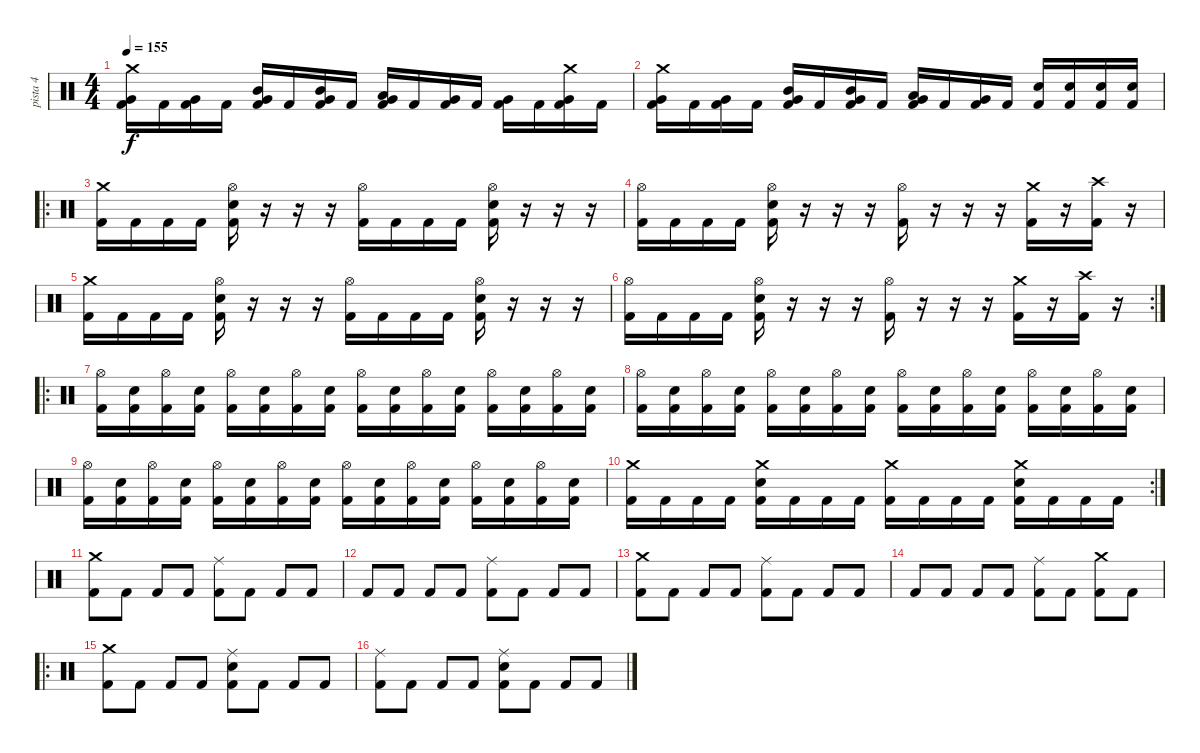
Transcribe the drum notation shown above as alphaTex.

\track ("pista 4" "pista 4") {instrument percussion}
\staff {score}
\articulation defaults
\ts (4 4)
\tempo 155
\clef neutral
\ks c
("Crash medium (hit)" "Very Low Tom (hit)" "Kick (hit) 2").16{dy f} "Kick (hit) 2".16 ("Very Low Tom (hit)" "Kick (hit) 2").16 "Kick (hit) 2".16 ("Mid Tom (hit)" "Very Low Tom (hit)" "Kick (hit) 2").16 "Kick (hit) 2".16 ("Mid Tom (hit)" "Very Low Tom (hit)" "Kick (hit) 2").16 "Kick (hit) 2".16 ("Low Tom (hit)" "Very Low Tom (hit)" "Kick (hit) 2").16 "Kick (hit) 2".16 ("Very Low Tom (hit)" "Kick (hit) 2").16 "Kick (hit) 2".16 ("Very Low Tom (hit)" "Kick (hit) 2").16 "Kick (hit) 2".16 ("Crash medium (hit)" "Very Low Tom (hit)" "Kick (hit) 2").16 "Kick (hit) 2".16 |
("Crash medium (hit)" "Very Low Tom (hit)" "Kick (hit) 2").16 "Kick (hit) 2".16 ("Very Low Tom (hit)" "Kick (hit) 2").16 "Kick (hit) 2".16 ("Mid Tom (hit)" "Very Low Tom (hit)" "Kick (hit) 2").16 "Kick (hit) 2".16 ("Mid Tom (hit)" "Very Low Tom (hit)" "Kick (hit) 2").16 "Kick (hit) 2".16 ("Low Tom (hit)" "Very Low Tom (hit)" "Kick (hit) 2").16 "Kick (hit) 2".16 ("Very Low Tom (hit)" "Kick (hit) 2").16 "Kick (hit) 2".16 ("Snare (hit) 2" "Kick (hit) 2").16 ("Snare (hit) 2" "Kick (hit) 2").16 ("Snare (hit) 2" "Kick (hit) 2").16 ("Snare (hit) 2" "Kick (hit) 2").16 |
\ro
("Crash medium (hit)" "Kick (hit) 2").16 "Kick (hit) 2".16 "Kick (hit) 2".16 "Kick (hit) 2".16 ("Hi-Hat (open)" "Snare (hit) 2" "Kick (hit) 2").16 r.16 r.16 r.16 ("Hi-Hat (open)" "Kick (hit) 2").16 "Kick (hit) 2".16 "Kick (hit) 2".16 "Kick (hit) 2".16 ("Hi-Hat (open)" "Snare (hit) 2" "Kick (hit) 2").16 r.16 r.16 r.16 |
("Hi-Hat (open)" "Kick (hit) 2").16 "Kick (hit) 2".16 "Kick (hit) 2".16 "Kick (hit) 2".16 ("Hi-Hat (open)" "Snare (hit) 2" "Kick (hit) 2").16 r.16 r.16 r.16 ("Hi-Hat (open)" "Kick (hit) 2").16 r.16 r.16 r.16 ("Crash medium (hit)" "Kick (hit) 2").16 r.16 ("Crash high (hit)" "Kick (hit) 2").16 r.16 |
("Crash medium (hit)" "Kick (hit) 2").16 "Kick (hit) 2".16 "Kick (hit) 2".16 "Kick (hit) 2".16 ("Hi-Hat (open)" "Snare (hit) 2" "Kick (hit) 2").16 r.16 r.16 r.16 ("Hi-Hat (open)" "Kick (hit) 2").16 "Kick (hit) 2".16 "Kick (hit) 2".16 "Kick (hit) 2".16 ("Hi-Hat (open)" "Snare (hit) 2" "Kick (hit) 2").16 r.16 r.16 r.16 |
\rc 2
("Hi-Hat (open)" "Kick (hit) 2").16 "Kick (hit) 2".16 "Kick (hit) 2".16 "Kick (hit) 2".16 ("Hi-Hat (open)" "Snare (hit) 2" "Kick (hit) 2").16 r.16 r.16 r.16 ("Hi-Hat (open)" "Kick (hit) 2").16 r.16 r.16 r.16 ("Crash medium (hit)" "Kick (hit) 2").16 r.16 ("Crash high (hit)" "Kick (hit) 2").16 r.16 |
\ro
("Hi-Hat (open)" "Kick (hit) 2").16 ("Snare (hit) 2" "Kick (hit) 2").16 ("Hi-Hat (open)" "Kick (hit) 2").16 ("Snare (hit) 2" "Kick (hit) 2").16 ("Hi-Hat (open)" "Kick (hit) 2").16 ("Snare (hit) 2" "Kick (hit) 2").16 ("Hi-Hat (open)" "Kick (hit) 2").16 ("Snare (hit) 2" "Kick (hit) 2").16 ("Hi-Hat (open)" "Kick (hit) 2").16 ("Snare (hit) 2" "Kick (hit) 2").16 ("Hi-Hat (open)" "Kick (hit) 2").16 ("Snare (hit) 2" "Kick (hit) 2").16 ("Hi-Hat (open)" "Kick (hit) 2").16 ("Snare (hit) 2" "Kick (hit) 2").16 ("Hi-Hat (open)" "Kick (hit) 2").16 ("Snare (hit) 2" "Kick (hit) 2").16 |
("Hi-Hat (open)" "Kick (hit) 2").16 ("Snare (hit) 2" "Kick (hit) 2").16 ("Hi-Hat (open)" "Kick (hit) 2").16 ("Snare (hit) 2" "Kick (hit) 2").16 ("Hi-Hat (open)" "Kick (hit) 2").16 ("Snare (hit) 2" "Kick (hit) 2").16 ("Hi-Hat (open)" "Kick (hit) 2").16 ("Snare (hit) 2" "Kick (hit) 2").16 ("Hi-Hat (open)" "Kick (hit) 2").16 ("Snare (hit) 2" "Kick (hit) 2").16 ("Hi-Hat (open)" "Kick (hit) 2").16 ("Snare (hit) 2" "Kick (hit) 2").16 ("Hi-Hat (open)" "Kick (hit) 2").16 ("Snare (hit) 2" "Kick (hit) 2").16 ("Hi-Hat (open)" "Kick (hit) 2").16 ("Snare (hit) 2" "Kick (hit) 2").16 |
("Hi-Hat (open)" "Kick (hit) 2").16 ("Snare (hit) 2" "Kick (hit) 2").16 ("Hi-Hat (open)" "Kick (hit) 2").16 ("Snare (hit) 2" "Kick (hit) 2").16 ("Hi-Hat (open)" "Kick (hit) 2").16 ("Snare (hit) 2" "Kick (hit) 2").16 ("Hi-Hat (open)" "Kick (hit) 2").16 ("Snare (hit) 2" "Kick (hit) 2").16 ("Hi-Hat (open)" "Kick (hit) 2").16 ("Snare (hit) 2" "Kick (hit) 2").16 ("Hi-Hat (open)" "Kick (hit) 2").16 ("Snare (hit) 2" "Kick (hit) 2").16 ("Hi-Hat (open)" "Kick (hit) 2").16 ("Snare (hit) 2" "Kick (hit) 2").16 ("Hi-Hat (open)" "Kick (hit) 2").16 ("Snare (hit) 2" "Kick (hit) 2").16 |
\rc 2
("Crash medium (hit)" "Kick (hit) 2").16 "Kick (hit) 2".16 "Kick (hit) 2".16 "Kick (hit) 2".16 ("Crash medium (hit)" "Snare (hit) 2" "Kick (hit) 2").16 "Kick (hit) 2".16 "Kick (hit) 2".16 "Kick (hit) 2".16 ("Crash medium (hit)" "Kick (hit) 2").16 "Kick (hit) 2".16 "Kick (hit) 2".16 "Kick (hit) 2".16 ("Crash medium (hit)" "Snare (hit) 2" "Kick (hit) 2").16 "Kick (hit) 2".16 "Kick (hit) 2".16 "Kick (hit) 2".16 |
("Crash medium (hit)" "Kick (hit) 2").8 "Kick (hit) 2".8 "Kick (hit) 2".8 "Kick (hit) 2".8 ("Ride (middle)" "Kick (hit) 2").8 "Kick (hit) 2".8 "Kick (hit) 2".8 "Kick (hit) 2".8 |
"Kick (hit) 2".8 "Kick (hit) 2".8 "Kick (hit) 2".8 "Kick (hit) 2".8 ("Ride (middle)" "Kick (hit) 2").8 "Kick (hit) 2".8 "Kick (hit) 2".8 "Kick (hit) 2".8 |
("Crash medium (hit)" "Kick (hit) 2").8 "Kick (hit) 2".8 "Kick (hit) 2".8 "Kick (hit) 2".8 ("Ride (middle)" "Kick (hit) 2").8 "Kick (hit) 2".8 "Kick (hit) 2".8 "Kick (hit) 2".8 |
"Kick (hit) 2".8 "Kick (hit) 2".8 "Kick (hit) 2".8 "Kick (hit) 2".8 ("Ride (middle)" "Kick (hit) 2").8 "Kick (hit) 2".8 ("Crash medium (hit)" "Kick (hit) 2").8 "Kick (hit) 2".8 |
\ro
("Crash medium (hit)" "Kick (hit) 2").8 "Kick (hit) 2".8 "Kick (hit) 2".8 "Kick (hit) 2".8 ("Ride (middle)" "Snare (hit) 2" "Kick (hit) 2").8 "Kick (hit) 2".8 "Kick (hit) 2".8 "Kick (hit) 2".8 |
("Ride (middle)" "Kick (hit) 2").8 "Kick (hit) 2".8 "Kick (hit) 2".8 "Kick (hit) 2".8 ("Ride (middle)" "Snare (hit) 2" "Kick (hit) 2").8 "Kick (hit) 2".8 "Kick (hit) 2".8 "Kick (hit) 2".8
